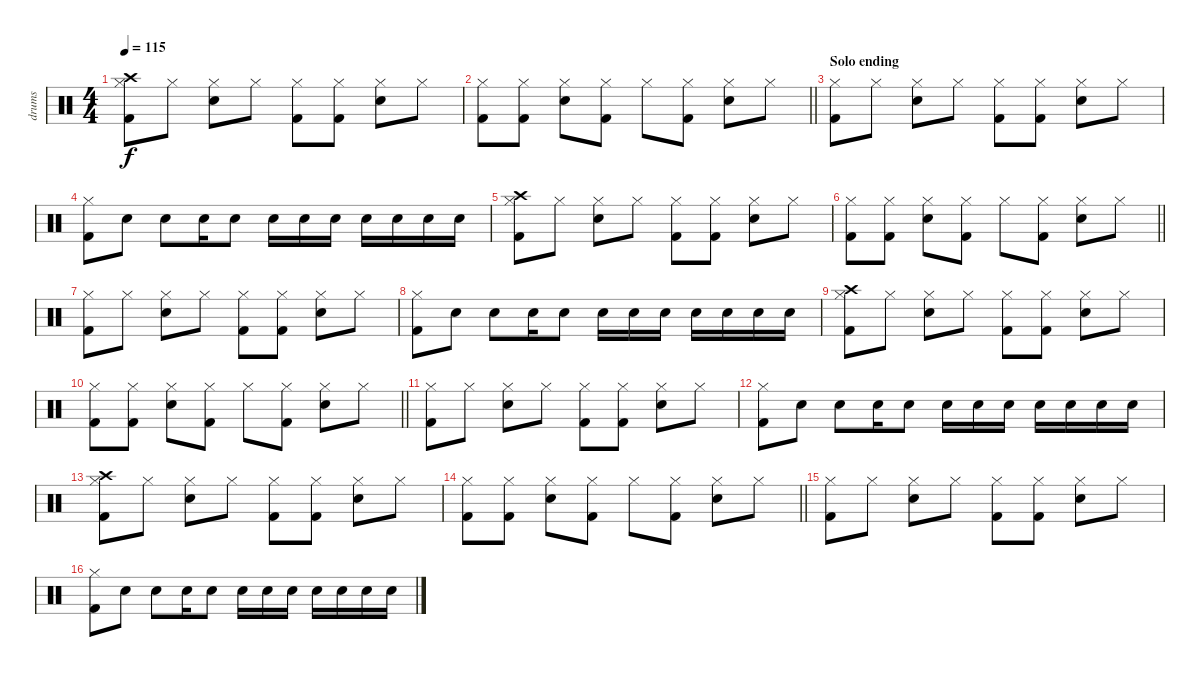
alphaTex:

\track ("drums" "drums") {instrument percussion}
\staff {score}
\articulation defaults
\ts (4 4)
\tempo 115
\clef neutral
\ks c
("Hi-Hat (closed)" "Crash high (hit)" "Kick (hit) 2").8{dy f} "Hi-Hat (closed)".8 ("Hi-Hat (closed)" "Electric Snare (hit)").8 "Hi-Hat (closed)".8 ("Hi-Hat (closed)" "Kick (hit) 2").8 ("Hi-Hat (closed)" "Kick (hit) 2").8 ("Hi-Hat (closed)" "Electric Snare (hit)").8 "Hi-Hat (closed)".8 |
\barLineRight lightlight
("Hi-Hat (closed)" "Kick (hit) 2").8 ("Hi-Hat (closed)" "Kick (hit) 2").8 ("Hi-Hat (closed)" "Electric Snare (hit)").8 ("Hi-Hat (closed)" "Kick (hit) 2").8 "Hi-Hat (closed)".8 ("Hi-Hat (closed)" "Kick (hit) 2").8 ("Hi-Hat (closed)" "Electric Snare (hit)").8 "Hi-Hat (closed)".8 |
\section ("" "Solo ending")
("Hi-Hat (closed)" "Kick (hit) 2").8 "Hi-Hat (closed)".8 ("Hi-Hat (closed)" "Electric Snare (hit)").8 "Hi-Hat (closed)".8 ("Hi-Hat (closed)" "Kick (hit) 2").8 ("Hi-Hat (closed)" "Kick (hit) 2").8 ("Hi-Hat (closed)" "Electric Snare (hit)").8 "Hi-Hat (closed)".8 |
("Hi-Hat (closed)" "Kick (hit) 2").8 "Electric Snare (hit)".8 "Electric Snare (hit)".8 "Electric Snare (hit)".16 "Electric Snare (hit)".8 "Electric Snare (hit)".16 "Electric Snare (hit)".16 "Electric Snare (hit)".16 "Electric Snare (hit)".16 "Electric Snare (hit)".16 "Electric Snare (hit)".16 "Electric Snare (hit)".16 |
("Hi-Hat (closed)" "Crash high (hit)" "Kick (hit) 2").8 "Hi-Hat (closed)".8 ("Hi-Hat (closed)" "Electric Snare (hit)").8 "Hi-Hat (closed)".8 ("Hi-Hat (closed)" "Kick (hit) 2").8 ("Hi-Hat (closed)" "Kick (hit) 2").8 ("Hi-Hat (closed)" "Electric Snare (hit)").8 "Hi-Hat (closed)".8 |
\barLineRight lightlight
("Hi-Hat (closed)" "Kick (hit) 2").8 ("Hi-Hat (closed)" "Kick (hit) 2").8 ("Hi-Hat (closed)" "Electric Snare (hit)").8 ("Hi-Hat (closed)" "Kick (hit) 2").8 "Hi-Hat (closed)".8 ("Hi-Hat (closed)" "Kick (hit) 2").8 ("Hi-Hat (closed)" "Electric Snare (hit)").8 "Hi-Hat (closed)".8 |
("Hi-Hat (closed)" "Kick (hit) 2").8 "Hi-Hat (closed)".8 ("Hi-Hat (closed)" "Electric Snare (hit)").8 "Hi-Hat (closed)".8 ("Hi-Hat (closed)" "Kick (hit) 2").8 ("Hi-Hat (closed)" "Kick (hit) 2").8 ("Hi-Hat (closed)" "Electric Snare (hit)").8 "Hi-Hat (closed)".8 |
("Hi-Hat (closed)" "Kick (hit) 2").8 "Electric Snare (hit)".8 "Electric Snare (hit)".8 "Electric Snare (hit)".16 "Electric Snare (hit)".8 "Electric Snare (hit)".16 "Electric Snare (hit)".16 "Electric Snare (hit)".16 "Electric Snare (hit)".16 "Electric Snare (hit)".16 "Electric Snare (hit)".16 "Electric Snare (hit)".16 |
("Hi-Hat (closed)" "Crash high (hit)" "Kick (hit) 2").8 "Hi-Hat (closed)".8 ("Hi-Hat (closed)" "Electric Snare (hit)").8 "Hi-Hat (closed)".8 ("Hi-Hat (closed)" "Kick (hit) 2").8 ("Hi-Hat (closed)" "Kick (hit) 2").8 ("Hi-Hat (closed)" "Electric Snare (hit)").8 "Hi-Hat (closed)".8 |
\barLineRight lightlight
("Hi-Hat (closed)" "Kick (hit) 2").8 ("Hi-Hat (closed)" "Kick (hit) 2").8 ("Hi-Hat (closed)" "Electric Snare (hit)").8 ("Hi-Hat (closed)" "Kick (hit) 2").8 "Hi-Hat (closed)".8 ("Hi-Hat (closed)" "Kick (hit) 2").8 ("Hi-Hat (closed)" "Electric Snare (hit)").8 "Hi-Hat (closed)".8 |
("Hi-Hat (closed)" "Kick (hit) 2").8 "Hi-Hat (closed)".8 ("Hi-Hat (closed)" "Electric Snare (hit)").8 "Hi-Hat (closed)".8 ("Hi-Hat (closed)" "Kick (hit) 2").8 ("Hi-Hat (closed)" "Kick (hit) 2").8 ("Hi-Hat (closed)" "Electric Snare (hit)").8 "Hi-Hat (closed)".8 |
("Hi-Hat (closed)" "Kick (hit) 2").8 "Electric Snare (hit)".8 "Electric Snare (hit)".8 "Electric Snare (hit)".16 "Electric Snare (hit)".8 "Electric Snare (hit)".16 "Electric Snare (hit)".16 "Electric Snare (hit)".16 "Electric Snare (hit)".16 "Electric Snare (hit)".16 "Electric Snare (hit)".16 "Electric Snare (hit)".16 |
("Hi-Hat (closed)" "Crash high (hit)" "Kick (hit) 2").8 "Hi-Hat (closed)".8 ("Hi-Hat (closed)" "Electric Snare (hit)").8 "Hi-Hat (closed)".8 ("Hi-Hat (closed)" "Kick (hit) 2").8 ("Hi-Hat (closed)" "Kick (hit) 2").8 ("Hi-Hat (closed)" "Electric Snare (hit)").8 "Hi-Hat (closed)".8 |
\barLineRight lightlight
("Hi-Hat (closed)" "Kick (hit) 2").8 ("Hi-Hat (closed)" "Kick (hit) 2").8 ("Hi-Hat (closed)" "Electric Snare (hit)").8 ("Hi-Hat (closed)" "Kick (hit) 2").8 "Hi-Hat (closed)".8 ("Hi-Hat (closed)" "Kick (hit) 2").8 ("Hi-Hat (closed)" "Electric Snare (hit)").8 "Hi-Hat (closed)".8 |
("Hi-Hat (closed)" "Kick (hit) 2").8 "Hi-Hat (closed)".8 ("Hi-Hat (closed)" "Electric Snare (hit)").8 "Hi-Hat (closed)".8 ("Hi-Hat (closed)" "Kick (hit) 2").8 ("Hi-Hat (closed)" "Kick (hit) 2").8 ("Hi-Hat (closed)" "Electric Snare (hit)").8 "Hi-Hat (closed)".8 |
("Hi-Hat (closed)" "Kick (hit) 2").8 "Electric Snare (hit)".8 "Electric Snare (hit)".8 "Electric Snare (hit)".16 "Electric Snare (hit)".8 "Electric Snare (hit)".16 "Electric Snare (hit)".16 "Electric Snare (hit)".16 "Electric Snare (hit)".16 "Electric Snare (hit)".16 "Electric Snare (hit)".16 "Electric Snare (hit)".16
